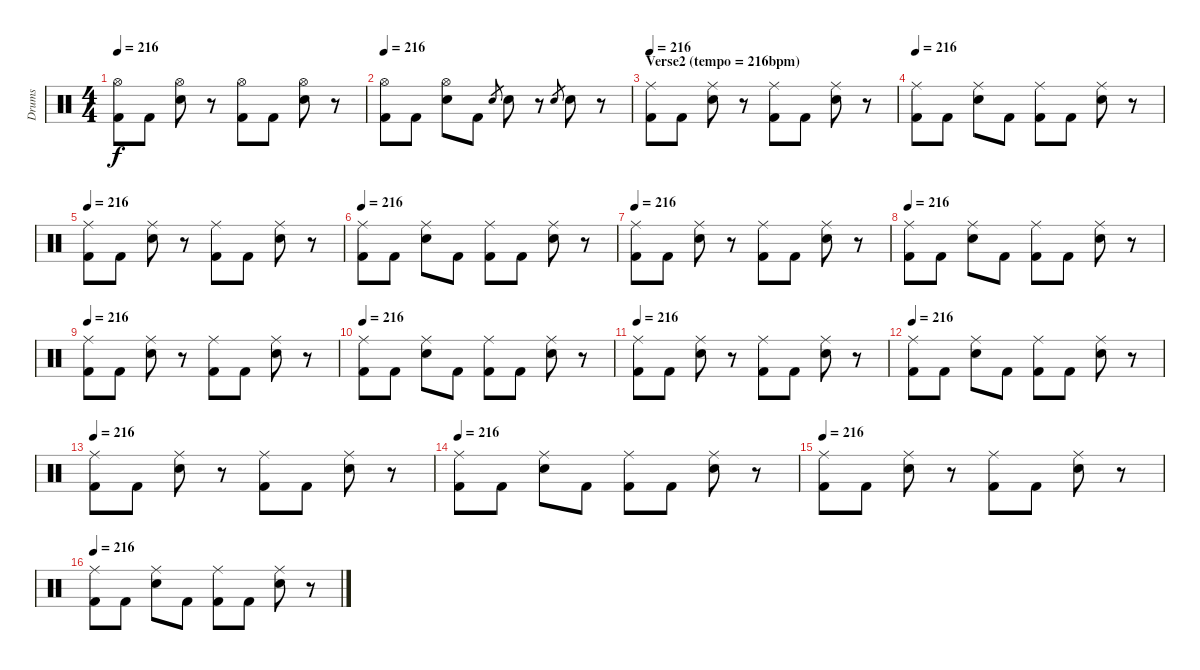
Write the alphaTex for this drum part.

\track ("Drums" "Drums") {instrument percussion}
\staff {score}
\articulation defaults
\ts (4 4)
\tempo 216
\clef neutral
\ks c
("Hi-Hat (open)" "Kick (hit) 2").8{dy f} "Kick (hit) 2".8 ("Hi-Hat (open)" "Snare (hit) 2").8 r.8 ("Hi-Hat (open)" "Kick (hit) 2").8 "Kick (hit) 2".8 ("Hi-Hat (open)" "Snare (hit) 2").8 r.8 |
\tempo 216
("Hi-Hat (open)" "Kick (hit) 2").8 "Kick (hit) 2".8 ("Hi-Hat (open)" "Snare (hit) 2").8 "Kick (hit) 2".8 "Snare (hit) 2".8{gr} "Snare (hit) 2".8 r.8 "Snare (hit) 2".8{gr} "Snare (hit) 2".8 r.8 |
\section ("" "Verse2 (tempo = 216bpm)")
\tempo 216
("Ride (middle)" "Kick (hit) 2").8 "Kick (hit) 2".8 ("Ride (middle)" "Snare (hit) 2").8 r.8 ("Ride (middle)" "Kick (hit) 2").8 "Kick (hit) 2".8 ("Ride (middle)" "Snare (hit) 2").8 r.8 |
\tempo 216
("Ride (middle)" "Kick (hit) 2").8 "Kick (hit) 2".8 ("Ride (middle)" "Snare (hit) 2").8 "Kick (hit) 2".8 ("Ride (middle)" "Kick (hit) 2").8 "Kick (hit) 2".8 ("Ride (middle)" "Snare (hit) 2").8 r.8 |
\tempo 216
("Ride (middle)" "Kick (hit) 2").8 "Kick (hit) 2".8 ("Ride (middle)" "Snare (hit) 2").8 r.8 ("Ride (middle)" "Kick (hit) 2").8 "Kick (hit) 2".8 ("Ride (middle)" "Snare (hit) 2").8 r.8 |
\tempo 216
("Ride (middle)" "Kick (hit) 2").8 "Kick (hit) 2".8 ("Ride (middle)" "Snare (hit) 2").8 "Kick (hit) 2".8 ("Ride (middle)" "Kick (hit) 2").8 "Kick (hit) 2".8 ("Ride (middle)" "Snare (hit) 2").8 r.8 |
\tempo 216
("Ride (middle)" "Kick (hit) 2").8 "Kick (hit) 2".8 ("Ride (middle)" "Snare (hit) 2").8 r.8 ("Ride (middle)" "Kick (hit) 2").8 "Kick (hit) 2".8 ("Ride (middle)" "Snare (hit) 2").8 r.8 |
\tempo 216
("Ride (middle)" "Kick (hit) 2").8 "Kick (hit) 2".8 ("Ride (middle)" "Snare (hit) 2").8 "Kick (hit) 2".8 ("Ride (middle)" "Kick (hit) 2").8 "Kick (hit) 2".8 ("Ride (middle)" "Snare (hit) 2").8 r.8 |
\tempo 216
("Ride (middle)" "Kick (hit) 2").8 "Kick (hit) 2".8 ("Ride (middle)" "Snare (hit) 2").8 r.8 ("Ride (middle)" "Kick (hit) 2").8 "Kick (hit) 2".8 ("Ride (middle)" "Snare (hit) 2").8 r.8 |
\tempo 216
("Ride (middle)" "Kick (hit) 2").8 "Kick (hit) 2".8 ("Ride (middle)" "Snare (hit) 2").8 "Kick (hit) 2".8 ("Ride (middle)" "Kick (hit) 2").8 "Kick (hit) 2".8 ("Ride (middle)" "Snare (hit) 2").8 r.8 |
\tempo 216
("Ride (middle)" "Kick (hit) 2").8 "Kick (hit) 2".8 ("Ride (middle)" "Snare (hit) 2").8 r.8 ("Ride (middle)" "Kick (hit) 2").8 "Kick (hit) 2".8 ("Ride (middle)" "Snare (hit) 2").8 r.8 |
\tempo 216
("Ride (middle)" "Kick (hit) 2").8 "Kick (hit) 2".8 ("Ride (middle)" "Snare (hit) 2").8 "Kick (hit) 2".8 ("Ride (middle)" "Kick (hit) 2").8 "Kick (hit) 2".8 ("Ride (middle)" "Snare (hit) 2").8 r.8 |
\tempo 216
("Ride (middle)" "Kick (hit) 2").8 "Kick (hit) 2".8 ("Ride (middle)" "Snare (hit) 2").8 r.8 ("Ride (middle)" "Kick (hit) 2").8 "Kick (hit) 2".8 ("Ride (middle)" "Snare (hit) 2").8 r.8 |
\tempo 216
("Ride (middle)" "Kick (hit) 2").8 "Kick (hit) 2".8 ("Ride (middle)" "Snare (hit) 2").8 "Kick (hit) 2".8 ("Ride (middle)" "Kick (hit) 2").8 "Kick (hit) 2".8 ("Ride (middle)" "Snare (hit) 2").8 r.8 |
\tempo 216
("Ride (middle)" "Kick (hit) 2").8 "Kick (hit) 2".8 ("Ride (middle)" "Snare (hit) 2").8 r.8 ("Ride (middle)" "Kick (hit) 2").8 "Kick (hit) 2".8 ("Ride (middle)" "Snare (hit) 2").8 r.8 |
\tempo 216
("Ride (middle)" "Kick (hit) 2").8 "Kick (hit) 2".8 ("Ride (middle)" "Snare (hit) 2").8 "Kick (hit) 2".8 ("Ride (middle)" "Kick (hit) 2").8 "Kick (hit) 2".8 ("Ride (middle)" "Snare (hit) 2").8 r.8
